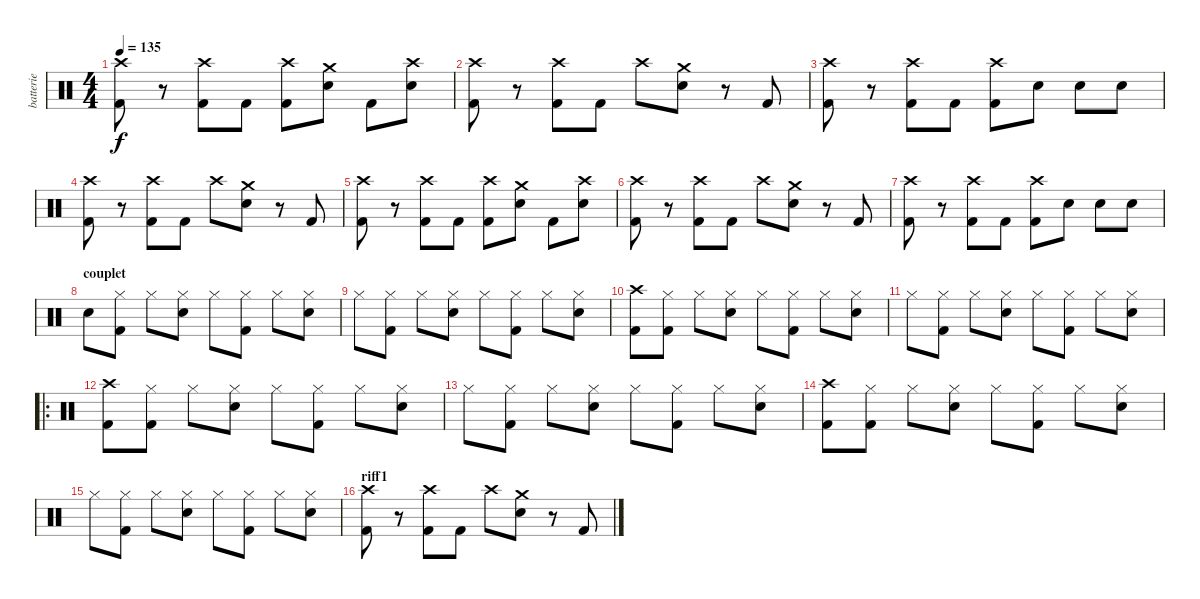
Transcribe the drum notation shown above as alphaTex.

\track ("batterie" "batterie") {instrument percussion}
\staff {score}
\articulation defaults
\ts (4 4)
\tempo 135
\clef neutral
\ks c
("Crash high (hit)" "Kick (hit) 2").8{dy f} r.8 ("Crash high (hit)" "Kick (hit) 2").8 "Kick (hit) 2".8 ("Crash high (hit)" "Kick (hit) 2").8 ("Crash medium (hit)" "Snare (hit) 2").8 "Kick (hit) 2".8 ("Crash high (hit)" "Snare (hit) 2").8 |
("Crash high (hit)" "Kick (hit) 2").8 r.8 ("Crash high (hit)" "Kick (hit) 2").8 "Kick (hit) 2".8 "Crash high (hit)".8 ("Crash medium (hit)" "Snare (hit) 2").8 r.8 "Kick (hit) 2".8 |
("Crash high (hit)" "Kick (hit) 2").8 r.8 ("Crash high (hit)" "Kick (hit) 2").8 "Kick (hit) 2".8 ("Crash high (hit)" "Kick (hit) 2").8 "Snare (hit) 2".8 "Snare (hit) 2".8 "Snare (hit) 2".8 |
("Crash high (hit)" "Kick (hit) 2").8 r.8 ("Crash high (hit)" "Kick (hit) 2").8 "Kick (hit) 2".8 "Crash high (hit)".8 ("Crash medium (hit)" "Snare (hit) 2").8 r.8 "Kick (hit) 2".8 |
("Crash high (hit)" "Kick (hit) 2").8 r.8 ("Crash high (hit)" "Kick (hit) 2").8 "Kick (hit) 2".8 ("Crash high (hit)" "Kick (hit) 2").8 ("Crash medium (hit)" "Snare (hit) 2").8 "Kick (hit) 2".8 ("Crash high (hit)" "Snare (hit) 2").8 |
("Crash high (hit)" "Kick (hit) 2").8 r.8 ("Crash high (hit)" "Kick (hit) 2").8 "Kick (hit) 2".8 "Crash high (hit)".8 ("Crash medium (hit)" "Snare (hit) 2").8 r.8 "Kick (hit) 2".8 |
("Crash high (hit)" "Kick (hit) 2").8 r.8 ("Crash high (hit)" "Kick (hit) 2").8 "Kick (hit) 2".8 ("Crash high (hit)" "Kick (hit) 2").8 "Snare (hit) 2".8 "Snare (hit) 2".8 "Snare (hit) 2".8 |
\section ("" "couplet")
"Snare (hit) 2".8 ("Kick (hit) 2" "Hi-Hat (closed)").8 "Hi-Hat (closed)".8 ("Snare (hit) 2" "Hi-Hat (closed)").8 "Hi-Hat (closed)".8 ("Kick (hit) 2" "Hi-Hat (closed)").8 "Hi-Hat (closed)".8 ("Snare (hit) 2" "Hi-Hat (closed)").8 |
"Hi-Hat (closed)".8 ("Kick (hit) 2" "Hi-Hat (closed)").8 "Hi-Hat (closed)".8 ("Snare (hit) 2" "Hi-Hat (closed)").8 "Hi-Hat (closed)".8 ("Kick (hit) 2" "Hi-Hat (closed)").8 "Hi-Hat (closed)".8 ("Snare (hit) 2" "Hi-Hat (closed)").8 |
("Crash high (hit)" "Kick (hit) 2").8 ("Kick (hit) 2" "Hi-Hat (closed)").8 "Hi-Hat (closed)".8 ("Snare (hit) 2" "Hi-Hat (closed)").8 "Hi-Hat (closed)".8 ("Kick (hit) 2" "Hi-Hat (closed)").8 "Hi-Hat (closed)".8 ("Snare (hit) 2" "Hi-Hat (closed)").8 |
"Hi-Hat (closed)".8 ("Kick (hit) 2" "Hi-Hat (closed)").8 "Hi-Hat (closed)".8 ("Snare (hit) 2" "Hi-Hat (closed)").8 "Hi-Hat (closed)".8 ("Kick (hit) 2" "Hi-Hat (closed)").8 "Hi-Hat (closed)".8 ("Snare (hit) 2" "Hi-Hat (closed)").8 |
\ro
("Crash high (hit)" "Kick (hit) 2").8 ("Kick (hit) 2" "Hi-Hat (closed)").8 "Hi-Hat (closed)".8 ("Snare (hit) 2" "Hi-Hat (closed)").8 "Hi-Hat (closed)".8 ("Kick (hit) 2" "Hi-Hat (closed)").8 "Hi-Hat (closed)".8 ("Snare (hit) 2" "Hi-Hat (closed)").8 |
"Hi-Hat (closed)".8 ("Kick (hit) 2" "Hi-Hat (closed)").8 "Hi-Hat (closed)".8 ("Snare (hit) 2" "Hi-Hat (closed)").8 "Hi-Hat (closed)".8 ("Kick (hit) 2" "Hi-Hat (closed)").8 "Hi-Hat (closed)".8 ("Snare (hit) 2" "Hi-Hat (closed)").8 |
("Crash high (hit)" "Kick (hit) 2").8 ("Kick (hit) 2" "Hi-Hat (closed)").8 "Hi-Hat (closed)".8 ("Snare (hit) 2" "Hi-Hat (closed)").8 "Hi-Hat (closed)".8 ("Kick (hit) 2" "Hi-Hat (closed)").8 "Hi-Hat (closed)".8 ("Snare (hit) 2" "Hi-Hat (closed)").8 |
"Hi-Hat (closed)".8 ("Kick (hit) 2" "Hi-Hat (closed)").8 "Hi-Hat (closed)".8 ("Snare (hit) 2" "Hi-Hat (closed)").8 "Hi-Hat (closed)".8 ("Kick (hit) 2" "Hi-Hat (closed)").8 "Hi-Hat (closed)".8 ("Snare (hit) 2" "Hi-Hat (closed)").8 |
\section ("" "riff1")
("Crash high (hit)" "Kick (hit) 2").8 r.8 ("Crash high (hit)" "Kick (hit) 2").8 "Kick (hit) 2".8 "Crash high (hit)".8 ("Crash medium (hit)" "Snare (hit) 2").8 r.8 "Kick (hit) 2".8
